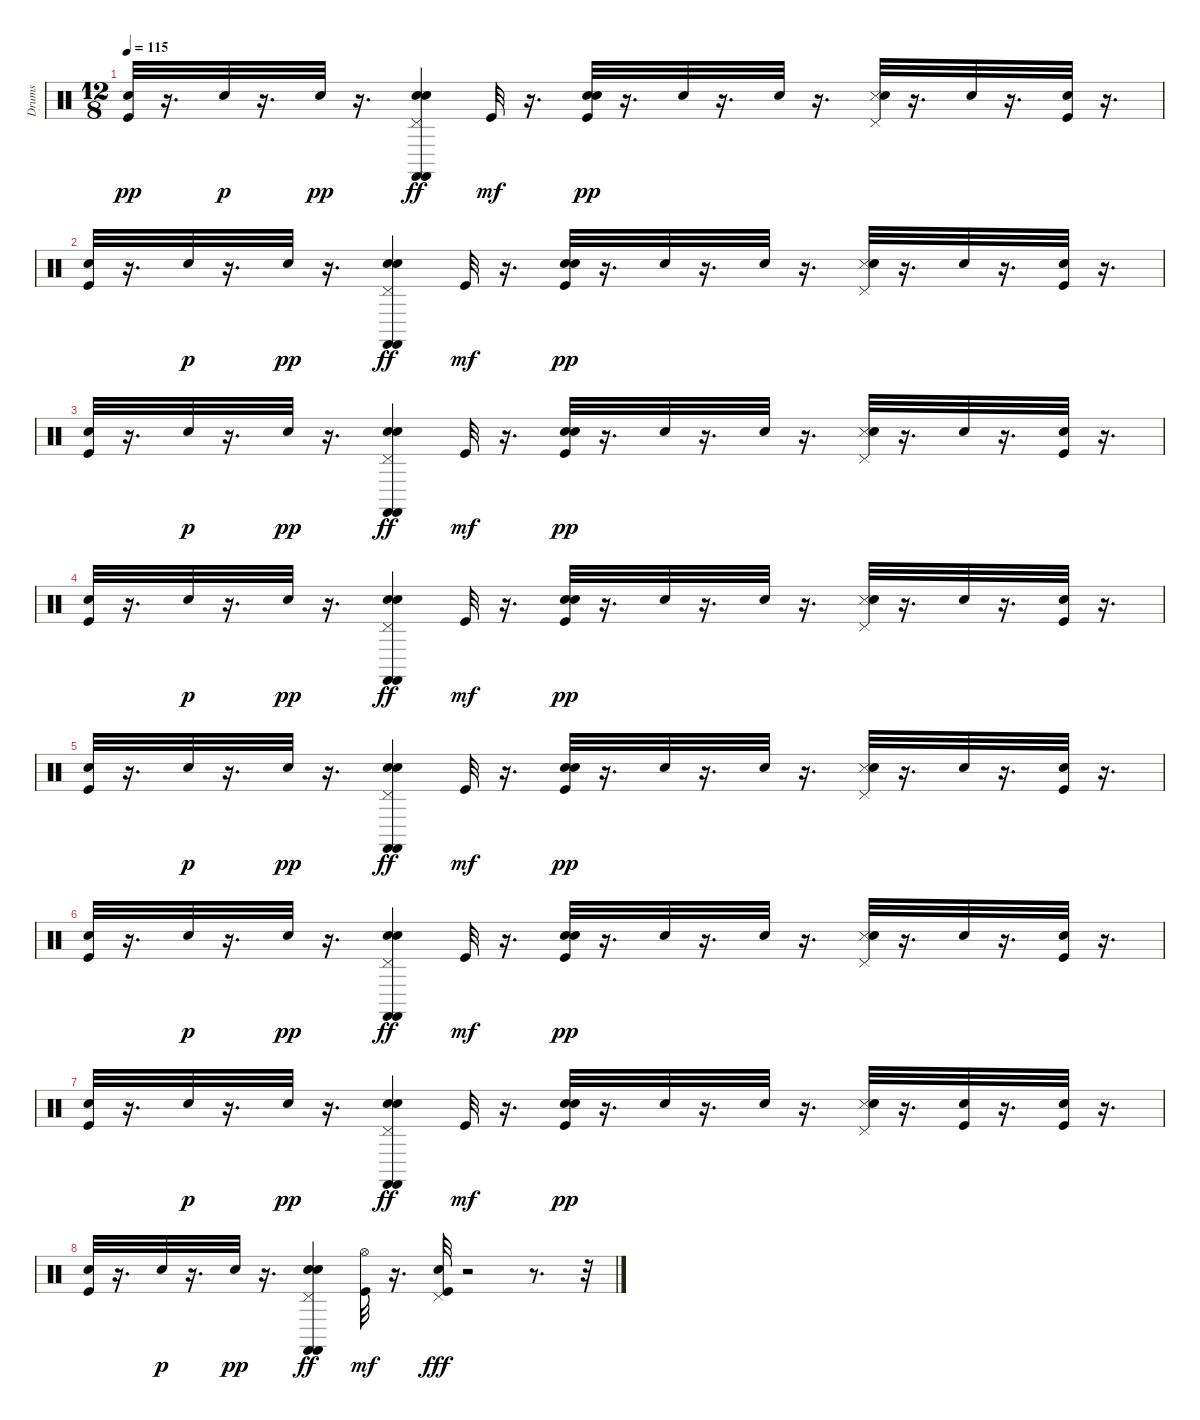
\track ("Drums" "Drums") {instrument percussion}
\staff {score}
\articulation defaults
\ts (12 8)
\tempo 115
\clef neutral
\ks c
("Kick (hit)" "Electric Snare (hit)").32{dy pp} r.16{d} "Snare (hit) 2".32{dy p} r.16{d} "Snare (hit) 2".32{dy pp} r.16{d} ("Castanets (hit)" "Snare (hit) 2" "Electric Snare (hit)" "Pedal Hi-Hat (hit)" "Castanets (hit)").4{dy ff} "Kick (hit)".32{dy mf} r.16{d} ("Kick (hit)" "Snare (hit) 2" "Electric Snare (hit)").32{dy pp} r.16{d} "Snare (hit) 2".32 r.16{d} "Snare (hit) 2".32 r.16{d} ("Snare (side stick) 3" "Electric Snare (hit)" "Pedal Hi-Hat (hit)").32 r.16{d} "Snare (hit) 2".32 r.16{d} ("Kick (hit)" "Snare (hit) 2").32 r.16{d} |
("Kick (hit)" "Electric Snare (hit)").32 r.16{d} "Snare (hit) 2".32{dy p} r.16{d} "Snare (hit) 2".32{dy pp} r.16{d} ("Castanets (hit)" "Snare (hit) 2" "Electric Snare (hit)" "Pedal Hi-Hat (hit)" "Castanets (hit)").4{dy ff} "Kick (hit)".32{dy mf} r.16{d} ("Kick (hit)" "Snare (hit) 2" "Electric Snare (hit)").32{dy pp} r.16{d} "Snare (hit) 2".32 r.16{d} "Snare (hit) 2".32 r.16{d} ("Snare (side stick) 3" "Electric Snare (hit)" "Pedal Hi-Hat (hit)").32 r.16{d} "Snare (hit) 2".32 r.16{d} ("Kick (hit)" "Snare (hit) 2").32 r.16{d} |
("Kick (hit)" "Electric Snare (hit)").32 r.16{d} "Snare (hit) 2".32{dy p} r.16{d} "Snare (hit) 2".32{dy pp} r.16{d} ("Castanets (hit)" "Snare (hit) 2" "Electric Snare (hit)" "Pedal Hi-Hat (hit)" "Castanets (hit)").4{dy ff} "Kick (hit)".32{dy mf} r.16{d} ("Kick (hit)" "Snare (hit) 2" "Electric Snare (hit)").32{dy pp} r.16{d} "Snare (hit) 2".32 r.16{d} "Snare (hit) 2".32 r.16{d} ("Snare (side stick) 3" "Electric Snare (hit)" "Pedal Hi-Hat (hit)").32 r.16{d} "Snare (hit) 2".32 r.16{d} ("Kick (hit)" "Snare (hit) 2").32 r.16{d} |
("Kick (hit)" "Electric Snare (hit)").32 r.16{d} "Snare (hit) 2".32{dy p} r.16{d} "Snare (hit) 2".32{dy pp} r.16{d} ("Castanets (hit)" "Snare (hit) 2" "Electric Snare (hit)" "Pedal Hi-Hat (hit)" "Castanets (hit)").4{dy ff} "Kick (hit)".32{dy mf} r.16{d} ("Kick (hit)" "Snare (hit) 2" "Electric Snare (hit)").32{dy pp} r.16{d} "Snare (hit) 2".32 r.16{d} "Snare (hit) 2".32 r.16{d} ("Snare (side stick) 3" "Electric Snare (hit)" "Pedal Hi-Hat (hit)").32 r.16{d} "Snare (hit) 2".32 r.16{d} ("Kick (hit)" "Snare (hit) 2").32 r.16{d} |
("Kick (hit)" "Electric Snare (hit)").32 r.16{d} "Snare (hit) 2".32{dy p} r.16{d} "Snare (hit) 2".32{dy pp} r.16{d} ("Castanets (hit)" "Snare (hit) 2" "Electric Snare (hit)" "Pedal Hi-Hat (hit)" "Castanets (hit)").4{dy ff} "Kick (hit)".32{dy mf} r.16{d} ("Kick (hit)" "Snare (hit) 2" "Electric Snare (hit)").32{dy pp} r.16{d} "Snare (hit) 2".32 r.16{d} "Snare (hit) 2".32 r.16{d} ("Snare (side stick) 3" "Electric Snare (hit)" "Pedal Hi-Hat (hit)").32 r.16{d} "Snare (hit) 2".32 r.16{d} ("Kick (hit)" "Snare (hit) 2").32 r.16{d} |
("Kick (hit)" "Electric Snare (hit)").32 r.16{d} "Snare (hit) 2".32{dy p} r.16{d} "Snare (hit) 2".32{dy pp} r.16{d} ("Castanets (hit)" "Snare (hit) 2" "Electric Snare (hit)" "Pedal Hi-Hat (hit)" "Castanets (hit)").4{dy ff} "Kick (hit)".32{dy mf} r.16{d} ("Kick (hit)" "Snare (hit) 2" "Electric Snare (hit)").32{dy pp} r.16{d} "Snare (hit) 2".32 r.16{d} "Snare (hit) 2".32 r.16{d} ("Snare (side stick) 3" "Electric Snare (hit)" "Pedal Hi-Hat (hit)").32 r.16{d} "Snare (hit) 2".32 r.16{d} ("Kick (hit)" "Snare (hit) 2").32 r.16{d} |
("Kick (hit)" "Electric Snare (hit)").32 r.16{d} "Snare (hit) 2".32{dy p} r.16{d} "Snare (hit) 2".32{dy pp} r.16{d} ("Castanets (hit)" "Snare (hit) 2" "Electric Snare (hit)" "Pedal Hi-Hat (hit)" "Castanets (hit)").4{dy ff} "Kick (hit)".32{dy mf} r.16{d} ("Kick (hit)" "Snare (hit) 2" "Electric Snare (hit)").32{dy pp} r.16{d} "Snare (hit) 2".32 r.16{d} "Snare (hit) 2".32 r.16{d} ("Snare (side stick) 3" "Electric Snare (hit)" "Pedal Hi-Hat (hit)").32 r.16{d} ("Kick (hit)" "Snare (hit) 2").32 r.16{d} ("Kick (hit)" "Snare (hit) 2").32 r.16{d} |
("Kick (hit)" "Electric Snare (hit)").32 r.16{d} "Snare (hit) 2".32{dy p} r.16{d} "Snare (hit) 2".32{dy pp} r.16{d} ("Castanets (hit)" "Snare (hit) 2" "Electric Snare (hit)" "Pedal Hi-Hat (hit)" "Castanets (hit)").4{dy ff} ("Kick (hit)" "Hi-Hat (open)").32{dy mf} r.16{d} ("Pedal Hi-Hat (hit)" "Kick (hit)" "Hand Clap (hit)").32{dy fff} r.2 r.8{d} r.32
